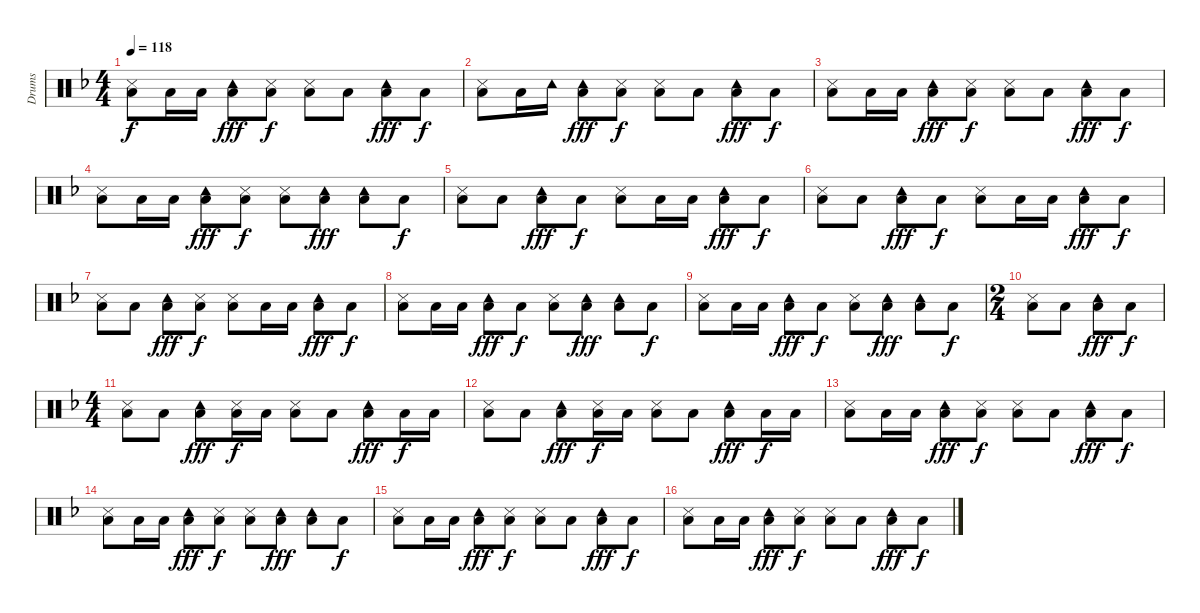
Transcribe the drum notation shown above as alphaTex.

\track ("Drums" "Drums") {instrument percussion}
\staff {score}
\articulation defaults
\ts (4 4)
\tempo 118
\clef neutral
\ks dminor
("Metronome (hit)" "Low Tom (hit)").8{dy f} "Low Tom (hit)".16 "Low Tom (hit)".16 ("Low Tom (hit)" "Tambourine (hit)").8{dy fff} ("Metronome (hit)" "Low Tom (hit)").8{dy f} ("Metronome (hit)" "Low Tom (hit)").8 "Low Tom (hit)".8 ("Low Tom (hit)" "Tambourine (hit)").8{dy fff} "Low Tom (hit)".8{dy f} |
("Metronome (hit)" "Low Tom (hit)").8 "Low Tom (hit)".16 "Tambourine (hit)".16 ("Low Tom (hit)" "Tambourine (hit)").8{dy fff} ("Metronome (hit)" "Low Tom (hit)").8{dy f} ("Metronome (hit)" "Low Tom (hit)").8 "Low Tom (hit)".8 ("Low Tom (hit)" "Tambourine (hit)").8{dy fff} "Low Tom (hit)".8{dy f} |
("Metronome (hit)" "Low Tom (hit)").8 "Low Tom (hit)".16 "Low Tom (hit)".16 ("Low Tom (hit)" "Tambourine (hit)").8{dy fff} ("Metronome (hit)" "Low Tom (hit)").8{dy f} ("Metronome (hit)" "Low Tom (hit)").8 "Low Tom (hit)".8 ("Low Tom (hit)" "Tambourine (hit)").8{dy fff} "Low Tom (hit)".8{dy f} |
("Metronome (hit)" "Low Tom (hit)").8 "Low Tom (hit)".16 "Low Tom (hit)".16 ("Low Tom (hit)" "Tambourine (hit)").8{dy fff} ("Metronome (hit)" "Low Tom (hit)").8{dy f} ("Metronome (hit)" "Low Tom (hit)").8 ("Low Tom (hit)" "Tambourine (hit)").8{dy fff} ("Low Tom (hit)" "Tambourine (hit)").8 "Low Tom (hit)".8{dy f} |
("Metronome (hit)" "Low Tom (hit)").8 "Low Tom (hit)".8 ("Low Tom (hit)" "Tambourine (hit)").8{dy fff} "Low Tom (hit)".8{dy f} ("Metronome (hit)" "Low Tom (hit)").8 "Low Tom (hit)".16 "Low Tom (hit)".16 ("Low Tom (hit)" "Tambourine (hit)").8{dy fff} "Low Tom (hit)".8{dy f} |
("Metronome (hit)" "Low Tom (hit)").8 "Low Tom (hit)".8 ("Low Tom (hit)" "Tambourine (hit)").8{dy fff} "Low Tom (hit)".8{dy f} ("Metronome (hit)" "Low Tom (hit)").8 "Low Tom (hit)".16 "Low Tom (hit)".16 ("Low Tom (hit)" "Tambourine (hit)").8{dy fff} "Low Tom (hit)".8{dy f} |
("Metronome (hit)" "Low Tom (hit)").8 "Low Tom (hit)".8 ("Low Tom (hit)" "Tambourine (hit)").8{dy fff} ("Metronome (hit)" "Low Tom (hit)").8{dy f} ("Metronome (hit)" "Low Tom (hit)").8 "Low Tom (hit)".16 "Low Tom (hit)".16 ("Low Tom (hit)" "Tambourine (hit)").8{dy fff} "Low Tom (hit)".8{dy f} |
("Metronome (hit)" "Low Tom (hit)").8 "Low Tom (hit)".16 "Low Tom (hit)".16 ("Low Tom (hit)" "Tambourine (hit)").8{dy fff} "Low Tom (hit)".8{dy f} ("Metronome (hit)" "Low Tom (hit)").8 ("Low Tom (hit)" "Tambourine (hit)").8{dy fff} ("Low Tom (hit)" "Tambourine (hit)").8 "Low Tom (hit)".8{dy f} |
("Metronome (hit)" "Low Tom (hit)").8 "Low Tom (hit)".16 "Low Tom (hit)".16 ("Low Tom (hit)" "Tambourine (hit)").8{dy fff} "Low Tom (hit)".8{dy f} ("Metronome (hit)" "Low Tom (hit)").8 ("Low Tom (hit)" "Tambourine (hit)").8{dy fff} ("Low Tom (hit)" "Tambourine (hit)").8 "Low Tom (hit)".8{dy f} |
\ts (2 4)
("Metronome (hit)" "Low Tom (hit)").8 "Low Tom (hit)".8 ("Low Tom (hit)" "Tambourine (hit)").8{dy fff} "Low Tom (hit)".8{dy f} |
\ts (4 4)
("Metronome (hit)" "Low Tom (hit)").8 "Low Tom (hit)".8 ("Low Tom (hit)" "Tambourine (hit)").8{dy fff} ("Metronome (hit)" "Low Tom (hit)").16{dy f} "Low Tom (hit)".16 ("Metronome (hit)" "Low Tom (hit)").8 "Low Tom (hit)".8 ("Low Tom (hit)" "Tambourine (hit)").8{dy fff} "Low Tom (hit)".16{dy f} "Low Tom (hit)".16 |
("Metronome (hit)" "Low Tom (hit)").8 "Low Tom (hit)".8 ("Low Tom (hit)" "Tambourine (hit)").8{dy fff} ("Metronome (hit)" "Low Tom (hit)").16{dy f} "Low Tom (hit)".16 ("Metronome (hit)" "Low Tom (hit)").8 "Low Tom (hit)".8 ("Low Tom (hit)" "Tambourine (hit)").8{dy fff} "Low Tom (hit)".16{dy f} "Low Tom (hit)".16 |
("Metronome (hit)" "Low Tom (hit)").8 "Low Tom (hit)".16 "Low Tom (hit)".16 ("Low Tom (hit)" "Tambourine (hit)").8{dy fff} ("Metronome (hit)" "Low Tom (hit)").8{dy f} ("Metronome (hit)" "Low Tom (hit)").8 "Low Tom (hit)".8 ("Low Tom (hit)" "Tambourine (hit)").8{dy fff} "Low Tom (hit)".8{dy f} |
("Metronome (hit)" "Low Tom (hit)").8 "Low Tom (hit)".16 "Low Tom (hit)".16 ("Low Tom (hit)" "Tambourine (hit)").8{dy fff} ("Metronome (hit)" "Low Tom (hit)").8{dy f} ("Metronome (hit)" "Low Tom (hit)").8 ("Low Tom (hit)" "Tambourine (hit)").8{dy fff} ("Low Tom (hit)" "Tambourine (hit)").8 "Low Tom (hit)".8{dy f} |
("Metronome (hit)" "Low Tom (hit)").8 "Low Tom (hit)".16 "Low Tom (hit)".16 ("Low Tom (hit)" "Tambourine (hit)").8{dy fff} ("Metronome (hit)" "Low Tom (hit)").8{dy f} ("Metronome (hit)" "Low Tom (hit)").8 "Low Tom (hit)".8 ("Low Tom (hit)" "Tambourine (hit)").8{dy fff} "Low Tom (hit)".8{dy f} |
("Metronome (hit)" "Low Tom (hit)").8 "Low Tom (hit)".16 "Low Tom (hit)".16 ("Low Tom (hit)" "Tambourine (hit)").8{dy fff} ("Metronome (hit)" "Low Tom (hit)").8{dy f} ("Metronome (hit)" "Low Tom (hit)").8 "Low Tom (hit)".8 ("Low Tom (hit)" "Tambourine (hit)").8{dy fff} "Low Tom (hit)".8{dy f}
